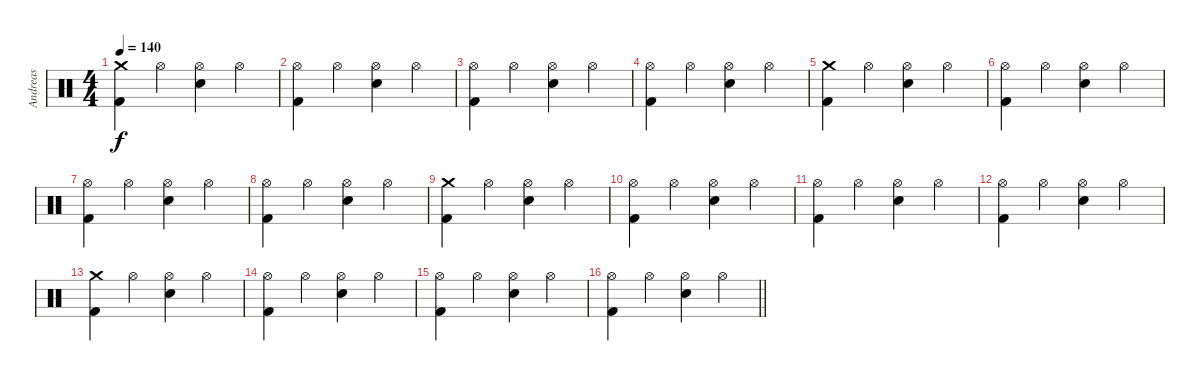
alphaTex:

\track ("Andreas" "Andreas") {instrument percussion}
\staff {score}
\articulation defaults
\ts (4 4)
\tempo 140
\clef neutral
\ks c
("Crash medium (hit)" "Kick (hit) 2").4{dy f} "Hi-Hat (open)".4 ("Hi-Hat (open)" "Electric Snare (hit)").4 "Hi-Hat (open)".4 |
("Hi-Hat (open)" "Kick (hit) 2").4 "Hi-Hat (open)".4 ("Hi-Hat (open)" "Electric Snare (hit)").4 "Hi-Hat (open)".4 |
("Hi-Hat (open)" "Kick (hit) 2").4 "Hi-Hat (open)".4 ("Hi-Hat (open)" "Electric Snare (hit)").4 "Hi-Hat (open)".4 |
("Hi-Hat (open)" "Kick (hit) 2").4 "Hi-Hat (open)".4 ("Hi-Hat (open)" "Electric Snare (hit)").4 "Hi-Hat (open)".4 |
("Crash medium (hit)" "Kick (hit) 2").4 "Hi-Hat (open)".4 ("Hi-Hat (open)" "Electric Snare (hit)").4 "Hi-Hat (open)".4 |
("Hi-Hat (open)" "Kick (hit) 2").4 "Hi-Hat (open)".4 ("Hi-Hat (open)" "Electric Snare (hit)").4 "Hi-Hat (open)".4 |
("Hi-Hat (open)" "Kick (hit) 2").4 "Hi-Hat (open)".4 ("Hi-Hat (open)" "Electric Snare (hit)").4 "Hi-Hat (open)".4 |
("Hi-Hat (open)" "Kick (hit) 2").4 "Hi-Hat (open)".4 ("Hi-Hat (open)" "Electric Snare (hit)").4 "Hi-Hat (open)".4 |
("Crash medium (hit)" "Kick (hit) 2").4 "Hi-Hat (open)".4 ("Hi-Hat (open)" "Electric Snare (hit)").4 "Hi-Hat (open)".4 |
("Hi-Hat (open)" "Kick (hit) 2").4 "Hi-Hat (open)".4 ("Hi-Hat (open)" "Electric Snare (hit)").4 "Hi-Hat (open)".4 |
("Hi-Hat (open)" "Kick (hit) 2").4 "Hi-Hat (open)".4 ("Hi-Hat (open)" "Electric Snare (hit)").4 "Hi-Hat (open)".4 |
("Hi-Hat (open)" "Kick (hit) 2").4 "Hi-Hat (open)".4 ("Hi-Hat (open)" "Electric Snare (hit)").4 "Hi-Hat (open)".4 |
("Crash medium (hit)" "Kick (hit) 2").4 "Hi-Hat (open)".4 ("Hi-Hat (open)" "Electric Snare (hit)").4 "Hi-Hat (open)".4 |
("Hi-Hat (open)" "Kick (hit) 2").4 "Hi-Hat (open)".4 ("Hi-Hat (open)" "Electric Snare (hit)").4 "Hi-Hat (open)".4 |
("Hi-Hat (open)" "Kick (hit) 2").4 "Hi-Hat (open)".4 ("Hi-Hat (open)" "Electric Snare (hit)").4 "Hi-Hat (open)".4 |
\barLineRight lightlight
("Hi-Hat (open)" "Kick (hit) 2").4 "Hi-Hat (open)".4 ("Hi-Hat (open)" "Electric Snare (hit)").4 "Hi-Hat (open)".4
